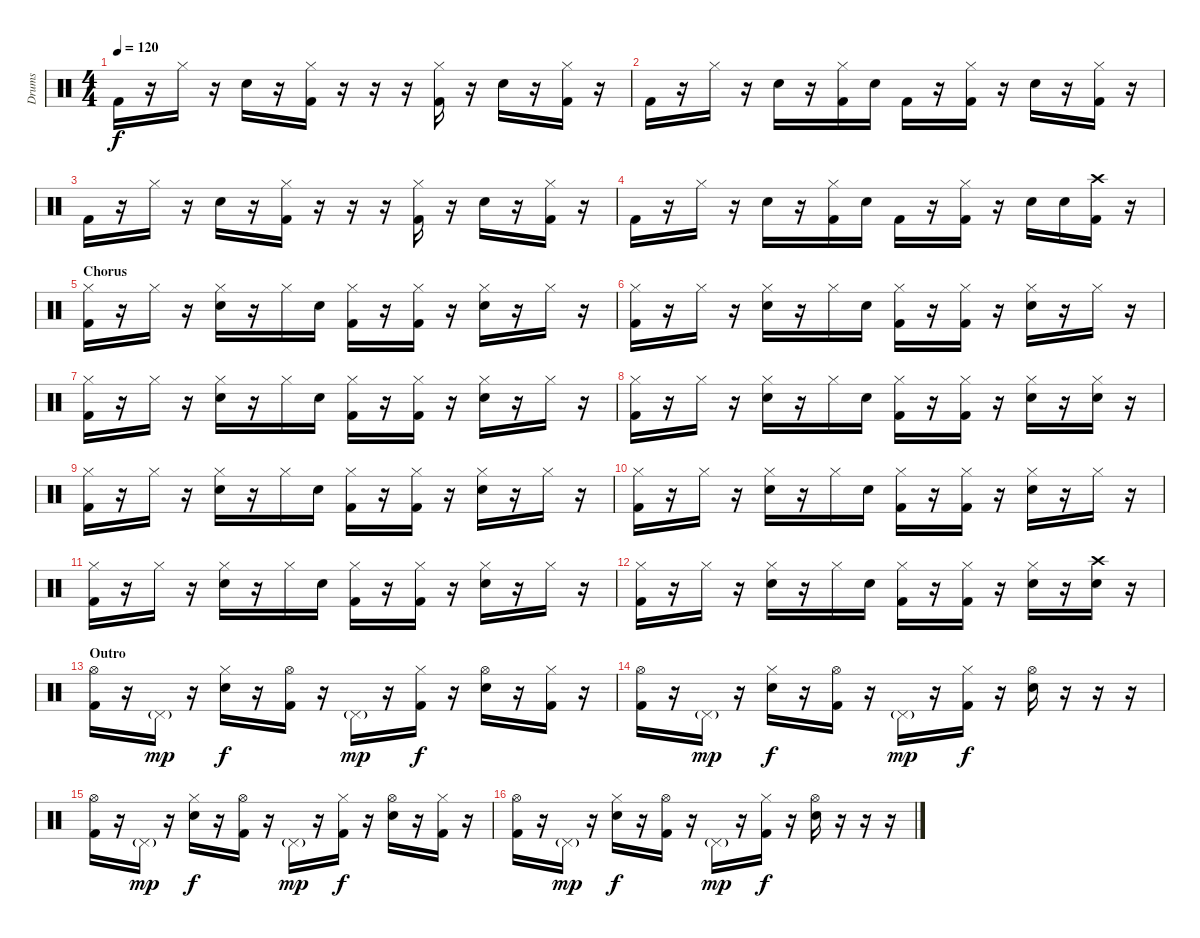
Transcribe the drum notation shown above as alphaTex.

\track ("Drums" "Drums") {instrument percussion}
\staff {score}
\articulation defaults
\ts (4 4)
\tempo 120
\clef neutral
\ks c "Kick (hit) 2".16{dy f}
r.16 "Hi-Hat (closed)".16 r.16 "Electric Snare (hit)".16 r.16 ("Hi-Hat (closed)" "Kick (hit) 2").16 r.16 r.16 r.16 ("Hi-Hat (closed)" "Kick (hit) 2").16 r.16 "Electric Snare (hit)".16 r.16 ("Hi-Hat (closed)" "Kick (hit) 2").16 r.16 |
"Kick (hit) 2".16 r.16 "Hi-Hat (closed)".16 r.16 "Electric Snare (hit)".16 r.16 ("Hi-Hat (closed)" "Kick (hit) 2").16 "Electric Snare (hit)".16 "Kick (hit) 2".16 r.16 ("Hi-Hat (closed)" "Kick (hit) 2").16 r.16 "Electric Snare (hit)".16 r.16 ("Hi-Hat (closed)" "Kick (hit) 2").16 r.16 |
"Kick (hit) 2".16 r.16 "Hi-Hat (closed)".16 r.16 "Electric Snare (hit)".16 r.16 ("Hi-Hat (closed)" "Kick (hit) 2").16 r.16 r.16 r.16 ("Hi-Hat (closed)" "Kick (hit) 2").16 r.16 "Electric Snare (hit)".16 r.16 ("Hi-Hat (closed)" "Kick (hit) 2").16 r.16 |
"Kick (hit) 2".16 r.16 "Hi-Hat (closed)".16 r.16 "Electric Snare (hit)".16 r.16 ("Hi-Hat (closed)" "Kick (hit) 2").16 "Electric Snare (hit)".16 "Kick (hit) 2".16 r.16 ("Hi-Hat (closed)" "Kick (hit) 2").16 r.16 "Electric Snare (hit)".16 "Electric Snare (hit)".16 ("Crash high (hit)" "Kick (hit) 2").16 r.16 |
\section ("" "Chorus")
("Hi-Hat (closed)" "Kick (hit) 2").16 r.16 "Hi-Hat (closed)".16 r.16 ("Hi-Hat (closed)" "Electric Snare (hit)").16 r.16 "Hi-Hat (closed)".16 "Electric Snare (hit)".16 ("Hi-Hat (closed)" "Kick (hit) 2").16 r.16 ("Hi-Hat (closed)" "Kick (hit) 2").16 r.16 ("Hi-Hat (closed)" "Electric Snare (hit)").16 r.16 "Hi-Hat (closed)".16 r.16 |
("Hi-Hat (closed)" "Kick (hit) 2").16 r.16 "Hi-Hat (closed)".16 r.16 ("Hi-Hat (closed)" "Electric Snare (hit)").16 r.16 "Hi-Hat (closed)".16 "Electric Snare (hit)".16 ("Hi-Hat (closed)" "Kick (hit) 2").16 r.16 ("Hi-Hat (closed)" "Kick (hit) 2").16 r.16 ("Hi-Hat (closed)" "Electric Snare (hit)").16 r.16 "Hi-Hat (closed)".16 r.16 |
("Hi-Hat (closed)" "Kick (hit) 2").16 r.16 "Hi-Hat (closed)".16 r.16 ("Hi-Hat (closed)" "Electric Snare (hit)").16 r.16 "Hi-Hat (closed)".16 "Electric Snare (hit)".16 ("Hi-Hat (closed)" "Kick (hit) 2").16 r.16 ("Hi-Hat (closed)" "Kick (hit) 2").16 r.16 ("Hi-Hat (closed)" "Electric Snare (hit)").16 r.16 "Hi-Hat (closed)".16 r.16 |
("Hi-Hat (closed)" "Kick (hit) 2").16 r.16 "Hi-Hat (closed)".16 r.16 ("Hi-Hat (closed)" "Electric Snare (hit)").16 r.16 "Hi-Hat (closed)".16 "Electric Snare (hit)".16 ("Hi-Hat (closed)" "Kick (hit) 2").16 r.16 ("Hi-Hat (closed)" "Kick (hit) 2").16 r.16 ("Hi-Hat (closed)" "Electric Snare (hit)").16 r.16 ("Hi-Hat (closed)" "Electric Snare (hit)").16 r.16 |
("Hi-Hat (closed)" "Kick (hit) 2").16 r.16 "Hi-Hat (closed)".16 r.16 ("Hi-Hat (closed)" "Electric Snare (hit)").16 r.16 "Hi-Hat (closed)".16 "Electric Snare (hit)".16 ("Hi-Hat (closed)" "Kick (hit) 2").16 r.16 ("Hi-Hat (closed)" "Kick (hit) 2").16 r.16 ("Hi-Hat (closed)" "Electric Snare (hit)").16 r.16 "Hi-Hat (closed)".16 r.16 |
("Hi-Hat (closed)" "Kick (hit) 2").16 r.16 "Hi-Hat (closed)".16 r.16 ("Hi-Hat (closed)" "Electric Snare (hit)").16 r.16 "Hi-Hat (closed)".16 "Electric Snare (hit)".16 ("Hi-Hat (closed)" "Kick (hit) 2").16 r.16 ("Hi-Hat (closed)" "Kick (hit) 2").16 r.16 ("Hi-Hat (closed)" "Electric Snare (hit)").16 r.16 "Hi-Hat (closed)".16 r.16 |
("Hi-Hat (closed)" "Kick (hit) 2").16 r.16 "Hi-Hat (closed)".16 r.16 ("Hi-Hat (closed)" "Electric Snare (hit)").16 r.16 "Hi-Hat (closed)".16 "Electric Snare (hit)".16 ("Hi-Hat (closed)" "Kick (hit) 2").16 r.16 ("Hi-Hat (closed)" "Kick (hit) 2").16 r.16 ("Hi-Hat (closed)" "Electric Snare (hit)").16 r.16 "Hi-Hat (closed)".16 r.16 |
("Hi-Hat (closed)" "Kick (hit) 2").16 r.16 "Hi-Hat (closed)".16 r.16 ("Hi-Hat (closed)" "Electric Snare (hit)").16 r.16 "Hi-Hat (closed)".16 "Electric Snare (hit)".16 ("Hi-Hat (closed)" "Kick (hit) 2").16 r.16 ("Hi-Hat (closed)" "Kick (hit) 2").16 r.16 ("Hi-Hat (closed)" "Electric Snare (hit)").16 r.16 ("Crash high (hit)" "Electric Snare (hit)").16 r.16 |
\section ("" "Outro")
("Hi-Hat (open)" "Kick (hit) 2").16 r.16 "Pedal Hi-Hat (hit)"{g}.16{dy mp} r.16 ("Hi-Hat (closed)" "Electric Snare (hit)").16{dy f} r.16 ("Hi-Hat (open)" "Kick (hit) 2").16 r.16 "Pedal Hi-Hat (hit)"{g}.16{dy mp} r.16 ("Hi-Hat (closed)" "Kick (hit) 2").16{dy f} r.16 ("Hi-Hat (open)" "Electric Snare (hit)").16 r.16 ("Hi-Hat (closed)" "Kick (hit) 2").16 r.16 |
("Hi-Hat (open)" "Kick (hit) 2").16 r.16 "Pedal Hi-Hat (hit)"{g}.16{dy mp} r.16 ("Hi-Hat (closed)" "Electric Snare (hit)").16{dy f} r.16 ("Hi-Hat (open)" "Kick (hit) 2").16 r.16 "Pedal Hi-Hat (hit)"{g}.16{dy mp} r.16 ("Hi-Hat (closed)" "Kick (hit) 2").16{dy f} r.16 ("Hi-Hat (open)" "Electric Snare (hit)").16 r.16 r.16 r.16 |
("Hi-Hat (open)" "Kick (hit) 2").16 r.16 "Pedal Hi-Hat (hit)"{g}.16{dy mp} r.16 ("Hi-Hat (closed)" "Electric Snare (hit)").16{dy f} r.16 ("Hi-Hat (open)" "Kick (hit) 2").16 r.16 "Pedal Hi-Hat (hit)"{g}.16{dy mp} r.16 ("Hi-Hat (closed)" "Kick (hit) 2").16{dy f} r.16 ("Hi-Hat (open)" "Electric Snare (hit)").16 r.16 ("Hi-Hat (closed)" "Kick (hit) 2").16 r.16 |
("Hi-Hat (open)" "Kick (hit) 2").16 r.16 "Pedal Hi-Hat (hit)"{g}.16{dy mp} r.16 ("Hi-Hat (closed)" "Electric Snare (hit)").16{dy f} r.16 ("Hi-Hat (open)" "Kick (hit) 2").16 r.16 "Pedal Hi-Hat (hit)"{g}.16{dy mp} r.16 ("Hi-Hat (closed)" "Kick (hit) 2").16{dy f} r.16 ("Hi-Hat (open)" "Electric Snare (hit)").16 r.16 r.16 r.16
